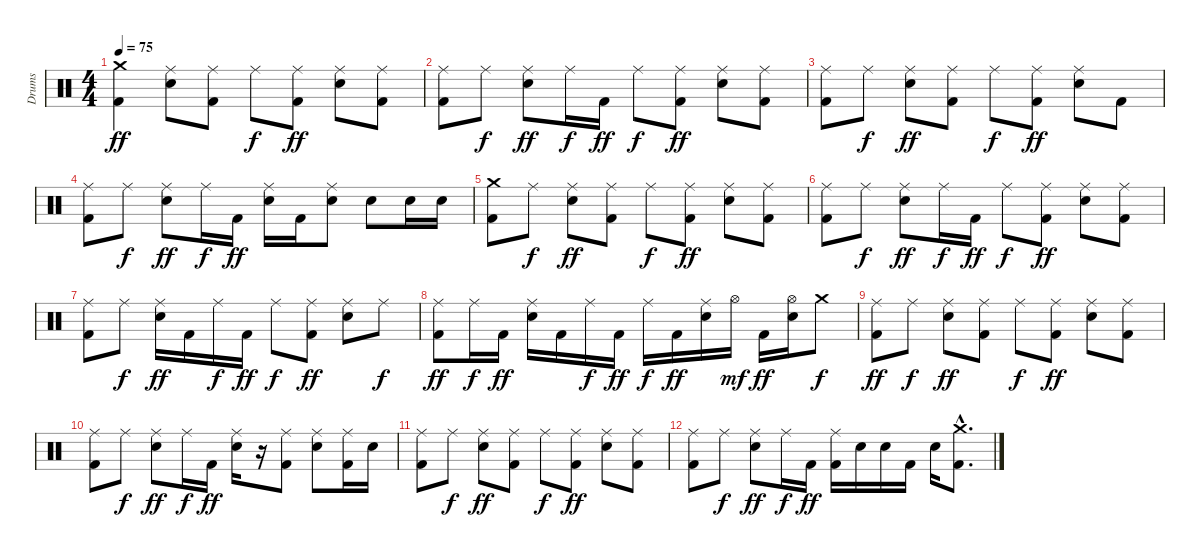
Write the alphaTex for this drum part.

\track ("Drums" "Drums") {instrument percussion}
\staff {score}
\articulation defaults
\ts (4 4)
\tempo 75
\clef neutral
\ks c
("Crash medium (hit)" "Kick (hit) 2").4{dy ff} ("Ride (middle)" "Electric Snare (hit)").8 ("Ride (middle)" "Kick (hit) 2").8 "Ride (middle)".8{dy f} ("Ride (middle)" "Kick (hit) 2").8{dy ff} ("Ride (middle)" "Electric Snare (hit)").8 ("Ride (middle)" "Kick (hit) 2").8 |
("Ride (middle)" "Kick (hit) 2").8 "Ride (middle)".8{dy f} ("Ride (middle)" "Electric Snare (hit)").8{dy ff} "Ride (middle)".16{dy f} "Kick (hit) 2".16{dy ff} "Ride (middle)".8{dy f} ("Ride (middle)" "Kick (hit) 2").8{dy ff} ("Ride (middle)" "Electric Snare (hit)").8 ("Ride (middle)" "Kick (hit) 2").8 |
("Ride (middle)" "Kick (hit) 2").8 "Ride (middle)".8{dy f} ("Ride (middle)" "Electric Snare (hit)").8{dy ff} ("Ride (middle)" "Kick (hit) 2").8 "Ride (middle)".8{dy f} ("Ride (middle)" "Kick (hit) 2").8{dy ff} ("Ride (middle)" "Electric Snare (hit)").8 "Kick (hit) 2".8 |
("Ride (middle)" "Kick (hit) 2").8 "Ride (middle)".8{dy f} ("Ride (middle)" "Electric Snare (hit)").8{dy ff} "Ride (middle)".16{dy f} "Kick (hit) 2".16{dy ff} ("Ride (middle)" "Electric Snare (hit)").16 "Kick (hit) 2".16 ("Ride (middle)" "Electric Snare (hit)").8 "Electric Snare (hit)".8 "Electric Snare (hit)".16 "Electric Snare (hit)".16 |
("Crash medium (hit)" "Kick (hit) 2").8 "Ride (middle)".8{dy f} ("Ride (middle)" "Electric Snare (hit)").8{dy ff} ("Ride (middle)" "Kick (hit) 2").8 "Ride (middle)".8{dy f} ("Ride (middle)" "Kick (hit) 2").8{dy ff} ("Ride (middle)" "Electric Snare (hit)").8 ("Ride (middle)" "Kick (hit) 2").8 |
("Ride (middle)" "Kick (hit) 2").8 "Ride (middle)".8{dy f} ("Ride (middle)" "Electric Snare (hit)").8{dy ff} "Ride (middle)".16{dy f} "Kick (hit) 2".16{dy ff} "Ride (middle)".8{dy f} ("Ride (middle)" "Kick (hit) 2").8{dy ff} ("Ride (middle)" "Electric Snare (hit)").8 ("Ride (middle)" "Kick (hit) 2").8 |
("Ride (middle)" "Kick (hit) 2").8 "Ride (middle)".8{dy f} ("Ride (middle)" "Electric Snare (hit)").16{dy ff} "Kick (hit) 2".16 "Ride (middle)".16{dy f} "Kick (hit) 2".16{dy ff} "Ride (middle)".8{dy f} ("Ride (middle)" "Kick (hit) 2").8{dy ff} ("Ride (middle)" "Electric Snare (hit)").8 "Ride (middle)".8{dy f} |
("Ride (middle)" "Kick (hit) 2").8{dy ff} "Ride (middle)".16{dy f} "Kick (hit) 2".16{dy ff} ("Ride (middle)" "Electric Snare (hit)").16 "Kick (hit) 2".16 "Ride (middle)".16{dy f} "Kick (hit) 2".16{dy ff} "Ride (middle)".16{dy f} "Kick (hit) 2".16{dy ff} ("Ride (middle)" "Electric Snare (hit)").16 "Hi-Hat (open)".16{dy mf} "Kick (hit) 2".16{dy ff} ("Hi-Hat (open)" "Electric Snare (hit)").16 "Crash medium (hit)".8{dy f} |
("Ride (middle)" "Kick (hit) 2").8{dy ff} "Ride (middle)".8{dy f} ("Ride (middle)" "Electric Snare (hit)").8{dy ff} ("Ride (middle)" "Kick (hit) 2").8 "Ride (middle)".8{dy f} ("Ride (middle)" "Kick (hit) 2").8{dy ff} ("Ride (middle)" "Electric Snare (hit)").8 ("Ride (middle)" "Kick (hit) 2").8 |
("Ride (middle)" "Kick (hit) 2").8 "Ride (middle)".8{dy f} ("Ride (middle)" "Electric Snare (hit)").8{dy ff} "Ride (middle)".16{dy f} "Kick (hit) 2".16{dy ff} ("Ride (middle)" "Electric Snare (hit)").16 r.16 ("Ride (middle)" "Kick (hit) 2").8 ("Ride (middle)" "Electric Snare (hit)").8 ("Ride (middle)" "Kick (hit) 2").16 "Electric Snare (hit)".16 |
("Ride (middle)" "Kick (hit) 2").8 "Ride (middle)".8{dy f} ("Ride (middle)" "Electric Snare (hit)").8{dy ff} ("Ride (middle)" "Kick (hit) 2").8 "Ride (middle)".8{dy f} ("Ride (middle)" "Kick (hit) 2").8{dy ff} ("Ride (middle)" "Electric Snare (hit)").8 ("Ride (middle)" "Kick (hit) 2").8 |
("Ride (middle)" "Kick (hit) 2").8 "Ride (middle)".8{dy f} ("Ride (middle)" "Electric Snare (hit)").8{dy ff} "Ride (middle)".16{dy f} "Kick (hit) 2".16{dy ff} ("Ride (middle)" "Kick (hit) 2").16 "Electric Snare (hit)".16 "Electric Snare (hit)".16 "Kick (hit) 2".16 "Electric Snare (hit)".16 ("Crash medium (hit)"{hac} "Kick (hit) 2"{hac}).8{d}
